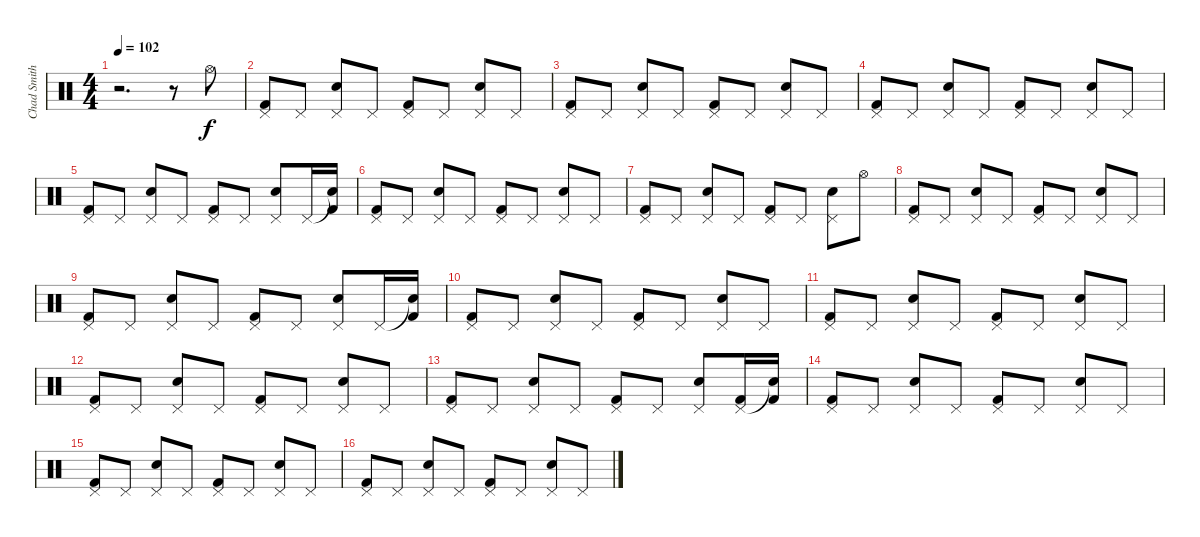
\track ("Chad Smith (Batterie)" "Chad Smith") {instrument percussion}
\staff {score}
\articulation defaults
\ts (4 4)
\tempo 102
\clef neutral
\ks c
r.2{d dy f} r.8 "Hi-Hat (open)".8 |
("Pedal Hi-Hat (hit)" "Kick (hit) 2").8 "Pedal Hi-Hat (hit)".8 ("Pedal Hi-Hat (hit)" "Electric Snare (hit)").8 "Pedal Hi-Hat (hit)".8 ("Pedal Hi-Hat (hit)" "Kick (hit) 2").8 "Pedal Hi-Hat (hit)".8 ("Pedal Hi-Hat (hit)" "Electric Snare (hit)").8 "Pedal Hi-Hat (hit)".8 |
("Pedal Hi-Hat (hit)" "Kick (hit) 2").8 "Pedal Hi-Hat (hit)".8 ("Pedal Hi-Hat (hit)" "Electric Snare (hit)").8 "Pedal Hi-Hat (hit)".8 ("Pedal Hi-Hat (hit)" "Kick (hit) 2").8 "Pedal Hi-Hat (hit)".8 ("Pedal Hi-Hat (hit)" "Electric Snare (hit)").8 "Pedal Hi-Hat (hit)".8 |
("Pedal Hi-Hat (hit)" "Kick (hit) 2").8 "Pedal Hi-Hat (hit)".8 ("Pedal Hi-Hat (hit)" "Electric Snare (hit)").8 "Pedal Hi-Hat (hit)".8 ("Pedal Hi-Hat (hit)" "Kick (hit) 2").8 "Pedal Hi-Hat (hit)".8 ("Pedal Hi-Hat (hit)" "Electric Snare (hit)").8 "Pedal Hi-Hat (hit)".8 |
("Pedal Hi-Hat (hit)" "Kick (hit) 2").8 "Pedal Hi-Hat (hit)".8 ("Pedal Hi-Hat (hit)" "Electric Snare (hit)").8 "Pedal Hi-Hat (hit)".8 ("Pedal Hi-Hat (hit)" "Kick (hit) 2").8 "Pedal Hi-Hat (hit)".8 ("Pedal Hi-Hat (hit)" "Electric Snare (hit)").8 "Pedal Hi-Hat (hit)".16 ("Snare (hit)"{t} "Kick (hit) 2").16 |
("Pedal Hi-Hat (hit)" "Kick (hit) 2").8 "Pedal Hi-Hat (hit)".8 ("Pedal Hi-Hat (hit)" "Electric Snare (hit)").8 "Pedal Hi-Hat (hit)".8 ("Pedal Hi-Hat (hit)" "Kick (hit) 2").8 "Pedal Hi-Hat (hit)".8 ("Pedal Hi-Hat (hit)" "Electric Snare (hit)").8 "Pedal Hi-Hat (hit)".8 |
("Pedal Hi-Hat (hit)" "Kick (hit) 2").8 "Pedal Hi-Hat (hit)".8 ("Pedal Hi-Hat (hit)" "Electric Snare (hit)").8 "Pedal Hi-Hat (hit)".8 ("Pedal Hi-Hat (hit)" "Kick (hit) 2").8 "Pedal Hi-Hat (hit)".8 ("Pedal Hi-Hat (hit)" "Electric Snare (hit)").8 "Hi-Hat (open)".8 |
("Pedal Hi-Hat (hit)" "Kick (hit) 2").8 "Pedal Hi-Hat (hit)".8 ("Pedal Hi-Hat (hit)" "Electric Snare (hit)").8 "Pedal Hi-Hat (hit)".8 ("Pedal Hi-Hat (hit)" "Kick (hit) 2").8 "Pedal Hi-Hat (hit)".8 ("Pedal Hi-Hat (hit)" "Electric Snare (hit)").8 "Pedal Hi-Hat (hit)".8 |
("Pedal Hi-Hat (hit)" "Kick (hit) 2").8 "Pedal Hi-Hat (hit)".8 ("Pedal Hi-Hat (hit)" "Electric Snare (hit)").8 "Pedal Hi-Hat (hit)".8 ("Pedal Hi-Hat (hit)" "Kick (hit) 2").8 "Pedal Hi-Hat (hit)".8 ("Pedal Hi-Hat (hit)" "Electric Snare (hit)").8 "Pedal Hi-Hat (hit)".16 ("Snare (hit)"{t} "Kick (hit) 2").16 |
("Pedal Hi-Hat (hit)" "Kick (hit) 2").8 "Pedal Hi-Hat (hit)".8 ("Pedal Hi-Hat (hit)" "Electric Snare (hit)").8 "Pedal Hi-Hat (hit)".8 ("Pedal Hi-Hat (hit)" "Kick (hit) 2").8 "Pedal Hi-Hat (hit)".8 ("Pedal Hi-Hat (hit)" "Electric Snare (hit)").8 "Pedal Hi-Hat (hit)".8 |
("Pedal Hi-Hat (hit)" "Kick (hit) 2").8 "Pedal Hi-Hat (hit)".8 ("Pedal Hi-Hat (hit)" "Electric Snare (hit)").8 "Pedal Hi-Hat (hit)".8 ("Pedal Hi-Hat (hit)" "Kick (hit) 2").8 "Pedal Hi-Hat (hit)".8 ("Pedal Hi-Hat (hit)" "Electric Snare (hit)").8 "Pedal Hi-Hat (hit)".8 |
("Pedal Hi-Hat (hit)" "Kick (hit) 2").8 "Pedal Hi-Hat (hit)".8 ("Pedal Hi-Hat (hit)" "Electric Snare (hit)").8 "Pedal Hi-Hat (hit)".8 ("Pedal Hi-Hat (hit)" "Kick (hit) 2").8 "Pedal Hi-Hat (hit)".8 ("Pedal Hi-Hat (hit)" "Electric Snare (hit)").8 "Pedal Hi-Hat (hit)".8 |
("Pedal Hi-Hat (hit)" "Kick (hit) 2").8 "Pedal Hi-Hat (hit)".8 ("Pedal Hi-Hat (hit)" "Electric Snare (hit)").8 "Pedal Hi-Hat (hit)".8 ("Pedal Hi-Hat (hit)" "Kick (hit) 2").8 "Pedal Hi-Hat (hit)".8 ("Pedal Hi-Hat (hit)" "Electric Snare (hit)").8 ("Pedal Hi-Hat (hit)" "Kick (hit) 2").16 ("Snare (hit)"{t} "Kick (hit) 2").16 |
("Pedal Hi-Hat (hit)" "Kick (hit) 2").8 "Pedal Hi-Hat (hit)".8 ("Pedal Hi-Hat (hit)" "Electric Snare (hit)").8 "Pedal Hi-Hat (hit)".8 ("Pedal Hi-Hat (hit)" "Kick (hit) 2").8 "Pedal Hi-Hat (hit)".8 ("Pedal Hi-Hat (hit)" "Electric Snare (hit)").8 "Pedal Hi-Hat (hit)".8 |
("Pedal Hi-Hat (hit)" "Kick (hit) 2").8 "Pedal Hi-Hat (hit)".8 ("Pedal Hi-Hat (hit)" "Electric Snare (hit)").8 "Pedal Hi-Hat (hit)".8 ("Pedal Hi-Hat (hit)" "Kick (hit) 2").8 "Pedal Hi-Hat (hit)".8 ("Pedal Hi-Hat (hit)" "Electric Snare (hit)").8 "Pedal Hi-Hat (hit)".8 |
("Pedal Hi-Hat (hit)" "Kick (hit) 2").8 "Pedal Hi-Hat (hit)".8 ("Pedal Hi-Hat (hit)" "Electric Snare (hit)").8 "Pedal Hi-Hat (hit)".8 ("Pedal Hi-Hat (hit)" "Kick (hit) 2").8 "Pedal Hi-Hat (hit)".8 ("Pedal Hi-Hat (hit)" "Electric Snare (hit)").8 "Pedal Hi-Hat (hit)".8
